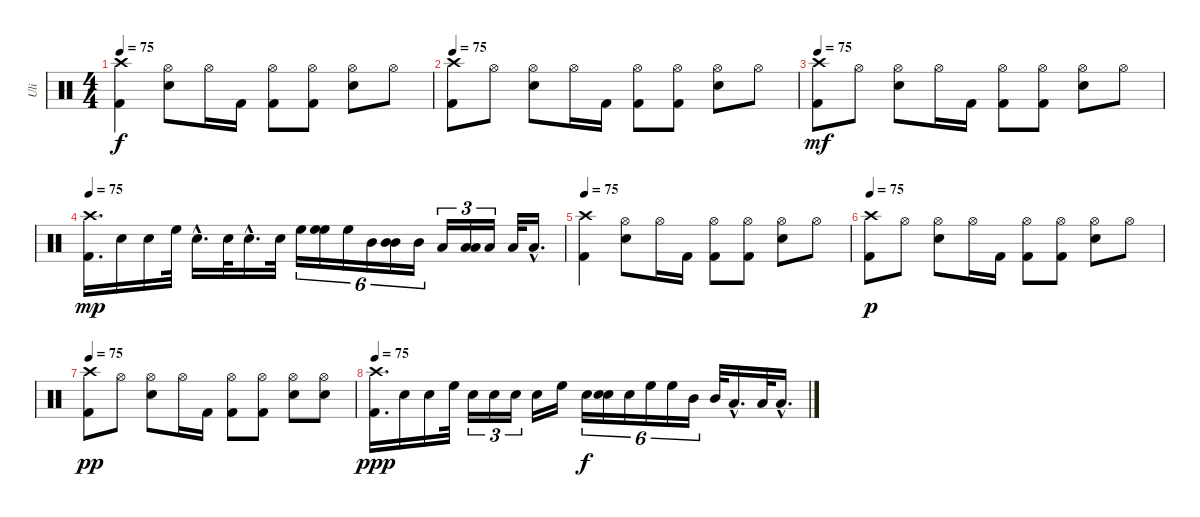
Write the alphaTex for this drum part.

\track ("Uli" "Uli") {instrument percussion}
\staff {score}
\articulation defaults
\ts (4 4)
\tempo 75
\clef neutral
\ks c
("Kick (hit) 2" "Crash high (hit)").4{dy f} ("Electric Snare (hit)" "Hi-Hat (open)").8 "Hi-Hat (open)".16 "Kick (hit) 2".16 ("Kick (hit) 2" "Hi-Hat (open)").8 ("Kick (hit) 2" "Hi-Hat (open)").8 ("Electric Snare (hit)" "Hi-Hat (open)").8 "Hi-Hat (open)".8 |
\tempo 75
("Kick (hit) 2" "Crash high (hit)").8 "Hi-Hat (open)".8 ("Electric Snare (hit)" "Hi-Hat (open)").8 "Hi-Hat (open)".16 "Kick (hit) 2".16 ("Kick (hit) 2" "Hi-Hat (open)").8 ("Kick (hit) 2" "Hi-Hat (open)").8 ("Electric Snare (hit)" "Hi-Hat (open)").8 "Hi-Hat (open)".8 |
\tempo 75
("Kick (hit) 2" "Crash high (hit)").8{dy mf} "Hi-Hat (open)".8 ("Electric Snare (hit)" "Hi-Hat (open)").8 "Hi-Hat (open)".16 "Kick (hit) 2".16 ("Kick (hit) 2" "Hi-Hat (open)").8 ("Kick (hit) 2" "Hi-Hat (open)").8 ("Electric Snare (hit)" "Hi-Hat (open)").8 "Hi-Hat (open)".8 |
\tempo 75
("Kick (hit) 2" "Crash high (hit)").16{d dy mp} "Electric Snare (hit)".16 "Electric Snare (hit)".16 "High Floor Tom (hit)".32 "Electric Snare (hit)"{hac}.16{d} "Electric Snare (hit)".32 "Electric Snare (hit)"{hac}.16{d} "Electric Snare (hit)".32 "High Floor Tom (hit)".16{tu (6 4)} ("High Floor Tom (hit)" "High Floor Tom (hit)").16{tu (6 4)} "High Floor Tom (hit)".16{tu (6 4)} "Mid Tom (hit)".16{tu (6 4)} ("Mid Tom (hit)" "Mid Tom (hit)").16{tu (6 4)} "Mid Tom (hit)".16{tu (6 4)} "Low Tom (hit)".16{tu (3 2)} ("Low Tom (hit)" "Low Tom (hit)").16{tu (3 2)} "Low Tom (hit)".16{tu (3 2)} "Low Floor Tom (hit)".32 "Low Floor Tom (hit)"{hac}.16{d} |
\tempo 75
("Kick (hit) 2" "Crash high (hit)").4 ("Electric Snare (hit)" "Hi-Hat (open)").8 "Hi-Hat (open)".16 "Kick (hit) 2".16 ("Kick (hit) 2" "Hi-Hat (open)").8 ("Kick (hit) 2" "Hi-Hat (open)").8 ("Electric Snare (hit)" "Hi-Hat (open)").8 "Hi-Hat (open)".8 |
\tempo 75
("Kick (hit) 2" "Crash high (hit)").8{dy p} "Hi-Hat (open)".8 ("Electric Snare (hit)" "Hi-Hat (open)").8 "Hi-Hat (open)".16 "Kick (hit) 2".16 ("Kick (hit) 2" "Hi-Hat (open)").8 ("Kick (hit) 2" "Hi-Hat (open)").8 ("Electric Snare (hit)" "Hi-Hat (open)").8 "Hi-Hat (open)".8 |
\tempo 75
("Kick (hit) 2" "Crash high (hit)").8{dy pp} "Hi-Hat (open)".8 ("Electric Snare (hit)" "Hi-Hat (open)").8 "Hi-Hat (open)".16 "Kick (hit) 2".16 ("Kick (hit) 2" "Hi-Hat (open)").8 ("Kick (hit) 2" "Hi-Hat (open)").8 ("Hi-Hat (open)" "Electric Snare (hit)").8 ("Hi-Hat (open)" "Electric Snare (hit)").8 |
\tempo 75
("Kick (hit) 2" "Crash high (hit)").16{d dy ppp} "Electric Snare (hit)".16 "Electric Snare (hit)".16 "High Floor Tom (hit)".32 "Electric Snare (hit)".16{tu (3 2)} "Electric Snare (hit)".16{tu (3 2)} "Electric Snare (hit)".16{tu (3 2)} "Electric Snare (hit)".16 "High Floor Tom (hit)".16 "Electric Snare (hit)".16{tu (6 4) dy f} ("Electric Snare (hit)" "Electric Snare (hit)").16{tu (6 4)} "Electric Snare (hit)".16{tu (6 4)} "High Floor Tom (hit)".16{tu (6 4)} "High Floor Tom (hit)".16{tu (6 4)} "Mid Tom (hit)".16{tu (6 4)} "Mid Tom (hit)".32 "Low Tom (hit)"{hac}.16{d} "Low Floor Tom (hit)".32 "Low Floor Tom (hit)"{hac}.16{d}
